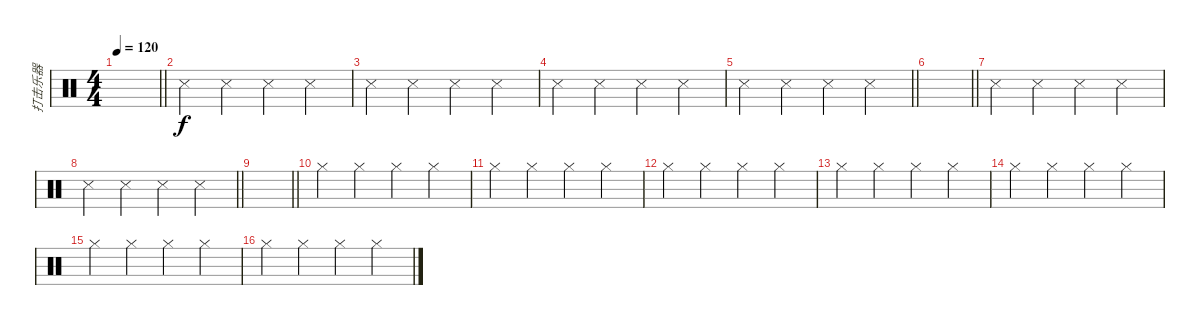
\track ("打击乐器" "打击乐器") {instrument percussion}
\staff {score}
\articulation defaults
\ts (4 4)
\tempo 120
\clef neutral
\barLineRight lightlight
\ks c
|
"Snare (side stick) 3".4 "Snare (side stick) 3".4 "Snare (side stick) 3".4 "Snare (side stick) 3".4 |
"Snare (side stick) 3".4 "Snare (side stick) 3".4 "Snare (side stick) 3".4 "Snare (side stick) 3".4 |
"Snare (side stick) 3".4 "Snare (side stick) 3".4 "Snare (side stick) 3".4 "Snare (side stick) 3".4 |
\barLineRight lightlight "Snare (side stick) 3".4 "Snare (side stick) 3".4 "Snare (side stick) 3".4 "Snare (side stick) 3".4
|
\barLineRight lightlight
|
"Snare (side stick) 3".4 "Snare (side stick) 3".4 "Snare (side stick) 3".4 "Snare (side stick) 3".4 |
\barLineRight lightlight "Snare (side stick) 3".4 "Snare (side stick) 3".4 "Snare (side stick) 3".4 "Snare (side stick) 3".4
|
\barLineRight lightlight
|
"Hi-Hat (closed)".4 "Hi-Hat (closed)".4 "Hi-Hat (closed)".4 "Hi-Hat (closed)".4 |
"Hi-Hat (closed)".4 "Hi-Hat (closed)".4 "Hi-Hat (closed)".4 "Hi-Hat (closed)".4 |
"Hi-Hat (closed)".4 "Hi-Hat (closed)".4 "Hi-Hat (closed)".4 "Hi-Hat (closed)".4 |
"Hi-Hat (closed)".4 "Hi-Hat (closed)".4 "Hi-Hat (closed)".4 "Hi-Hat (closed)".4 |
"Hi-Hat (closed)".4 "Hi-Hat (closed)".4 "Hi-Hat (closed)".4 "Hi-Hat (closed)".4 |
"Hi-Hat (closed)".4 "Hi-Hat (closed)".4 "Hi-Hat (closed)".4 "Hi-Hat (closed)".4 |
"Hi-Hat (closed)".4 "Hi-Hat (closed)".4 "Hi-Hat (closed)".4 "Hi-Hat (closed)".4
